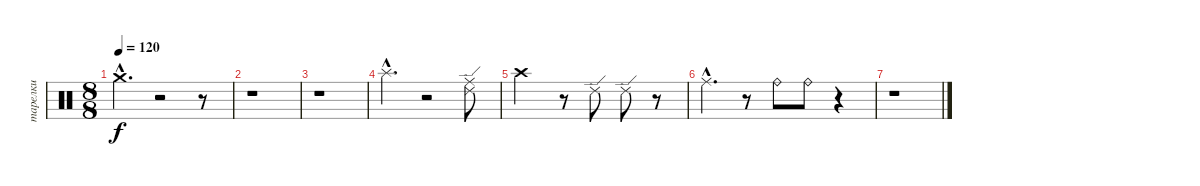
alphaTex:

\track ("тарелки" "тарелки") {instrument percussion}
\staff {score}
\articulation defaults
\ts (8 8)
\tempo 120
\clef neutral
\ks c "Crash medium (hit)"{hac}.4{d dy f volume 10}
r.2 r.8 |
r.1 |
r.1 |
"Splash (hit)"{hac}.4{d volume 4} r.2 ("Ride (middle)" "Ride (edge) 2").8{volume 3} |
"Crash high (hit)".2{volume 3} r.8 "Ride (edge) 2".8{volume 2} "Ride (edge) 2".8{volume 2} r.8 |
"Ride (middle)"{hac}.4{d volume 2} r.8 "Ride (bell)".8{volume 0} "Ride (bell)".8 r.4 |
r.1
